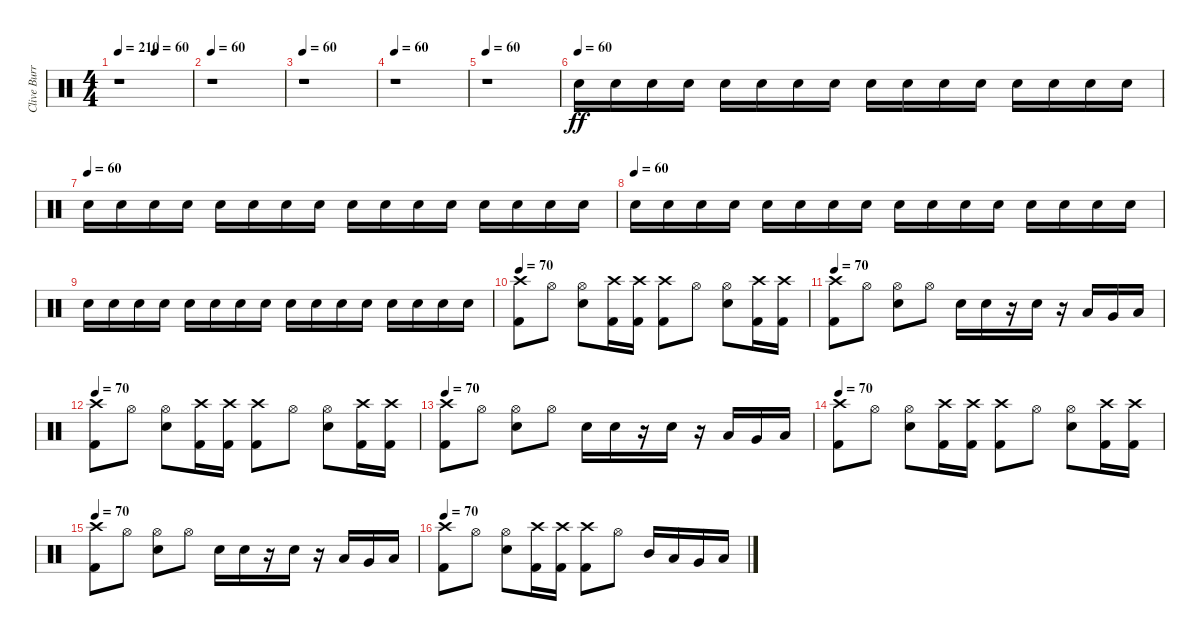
\track ("Clive Burr" "Clive Burr") {instrument percussion}
\staff {score}
\articulation defaults
\ts (4 4)
\tempo 210
\tempo (60 0.5)
\tempo 210
\clef neutral
\ks c
r.1{dy ff} |
\tempo 70
\tempo 60
r.1 |
\tempo 60
r.1 |
\tempo 60
r.1 |
\tempo 60
r.1 |
\tempo (60)
"Snare (hit) 2".16{volume 0} "Snare (hit) 2".16{volume 0} "Snare (hit) 2".16{volume 0} "Snare (hit) 2".16{volume 1} "Snare (hit) 2".16{volume 1} "Snare (hit) 2".16{volume 1} "Snare (hit) 2".16{volume 2} "Snare (hit) 2".16{volume 2} "Snare (hit) 2".16{volume 2} "Snare (hit) 2".16{volume 2} "Snare (hit) 2".16{volume 2} "Snare (hit) 2".16{volume 3} "Snare (hit) 2".16{volume 3} "Snare (hit) 2".16{volume 3} "Snare (hit) 2".16{volume 4} "Snare (hit) 2".16{volume 4} |
\tempo (60)
"Snare (hit) 2".16{volume 4} "Snare (hit) 2".16{volume 4} "Snare (hit) 2".16{volume 4} "Snare (hit) 2".16{volume 5} "Snare (hit) 2".16{volume 5} "Snare (hit) 2".16{volume 5} "Snare (hit) 2".16{volume 6} "Snare (hit) 2".16{volume 6} "Snare (hit) 2".16{volume 6} "Snare (hit) 2".16{volume 6} "Snare (hit) 2".16{volume 6} "Snare (hit) 2".16{volume 7} "Snare (hit) 2".16{volume 7} "Snare (hit) 2".16{volume 7} "Snare (hit) 2".16{volume 8} "Snare (hit) 2".16{volume 8} |
\tempo (60)
"Snare (hit) 2".16{volume 8} "Snare (hit) 2".16{volume 8} "Snare (hit) 2".16{volume 8} "Snare (hit) 2".16{volume 9} "Snare (hit) 2".16{volume 9} "Snare (hit) 2".16{volume 9} "Snare (hit) 2".16{volume 10} "Snare (hit) 2".16{volume 10} "Snare (hit) 2".16{volume 10} "Snare (hit) 2".16{volume 10} "Snare (hit) 2".16{volume 10} "Snare (hit) 2".16{volume 11} "Snare (hit) 2".16{volume 11} "Snare (hit) 2".16{volume 11} "Snare (hit) 2".16{volume 12} "Snare (hit) 2".16{volume 12} |
"Snare (hit) 2".16{volume 12} "Snare (hit) 2".16{volume 12} "Snare (hit) 2".16{volume 12} "Snare (hit) 2".16{volume 13} "Snare (hit) 2".16{volume 13} "Snare (hit) 2".16{volume 13} "Snare (hit) 2".16{volume 13} "Snare (hit) 2".16{volume 14} "Snare (hit) 2".16{volume 14} "Snare (hit) 2".16{volume 14} "Snare (hit) 2".16{volume 14} "Snare (hit) 2".16{volume 15} "Snare (hit) 2".16{volume 15} "Snare (hit) 2".16{volume 15} "Snare (hit) 2".16{volume 15} "Snare (hit) 2".16{volume 16} |
\tempo 70
("Kick (hit) 2" "Crash high (hit)").8{volume 16} "Hi-Hat (open)".8 ("Snare (hit) 2" "Hi-Hat (open)").8 ("Kick (hit) 2" "Crash high (hit)").16 ("Kick (hit) 2" "Crash high (hit)").16 ("Kick (hit) 2" "Crash high (hit)").8 "Hi-Hat (open)".8 ("Snare (hit) 2" "Hi-Hat (open)").8 ("Kick (hit) 2" "Crash high (hit)").16 ("Kick (hit) 2" "Crash high (hit)").16 |
\tempo 70
("Kick (hit) 2" "Crash high (hit)").8 "Hi-Hat (open)".8 ("Snare (hit) 2" "Hi-Hat (open)").8 "Hi-Hat (open)".8 "Snare (hit) 2".16 "Snare (hit) 2".16 r.16 "Snare (hit) 2".16 r.16 "Low Tom (hit)".16 "Very Low Tom (hit)".16 "Low Floor Tom (hit)".16 |
\tempo 70
("Kick (hit) 2" "Crash high (hit)").8 "Hi-Hat (open)".8 ("Snare (hit) 2" "Hi-Hat (open)").8 ("Kick (hit) 2" "Crash high (hit)").16 ("Kick (hit) 2" "Crash high (hit)").16 ("Kick (hit) 2" "Crash high (hit)").8 "Hi-Hat (open)".8 ("Snare (hit) 2" "Hi-Hat (open)").8 ("Kick (hit) 2" "Crash high (hit)").16 ("Kick (hit) 2" "Crash high (hit)").16 |
\tempo 70
("Kick (hit) 2" "Crash high (hit)").8 "Hi-Hat (open)".8 ("Snare (hit) 2" "Hi-Hat (open)").8 "Hi-Hat (open)".8 "Snare (hit) 2".16 "Snare (hit) 2".16 r.16 "Snare (hit) 2".16 r.16 "Low Tom (hit)".16 "Very Low Tom (hit)".16 "Low Floor Tom (hit)".16 |
\tempo 70
("Kick (hit) 2" "Crash high (hit)").8 "Hi-Hat (open)".8 ("Snare (hit) 2" "Hi-Hat (open)").8 ("Kick (hit) 2" "Crash high (hit)").16 ("Kick (hit) 2" "Crash high (hit)").16 ("Kick (hit) 2" "Crash high (hit)").8 "Hi-Hat (open)".8 ("Snare (hit) 2" "Hi-Hat (open)").8 ("Kick (hit) 2" "Crash high (hit)").16 ("Kick (hit) 2" "Crash high (hit)").16 |
\tempo 70
("Kick (hit) 2" "Crash high (hit)").8 "Hi-Hat (open)".8 ("Snare (hit) 2" "Hi-Hat (open)").8 "Hi-Hat (open)".8 "Snare (hit) 2".16 "Snare (hit) 2".16 r.16 "Snare (hit) 2".16 r.16 "Low Tom (hit)".16 "Very Low Tom (hit)".16 "Low Floor Tom (hit)".16 |
\tempo 70
("Kick (hit) 2" "Crash high (hit)").8 "Hi-Hat (open)".8 ("Snare (hit) 2" "Hi-Hat (open)").8 ("Kick (hit) 2" "Crash high (hit)").16 ("Kick (hit) 2" "Crash high (hit)").16 ("Kick (hit) 2" "Crash high (hit)").8 "Hi-Hat (open)".8 "Mid Tom (hit)".16 "Low Tom (hit)".16 "Very Low Tom (hit)".16 "Low Floor Tom (hit)".16
